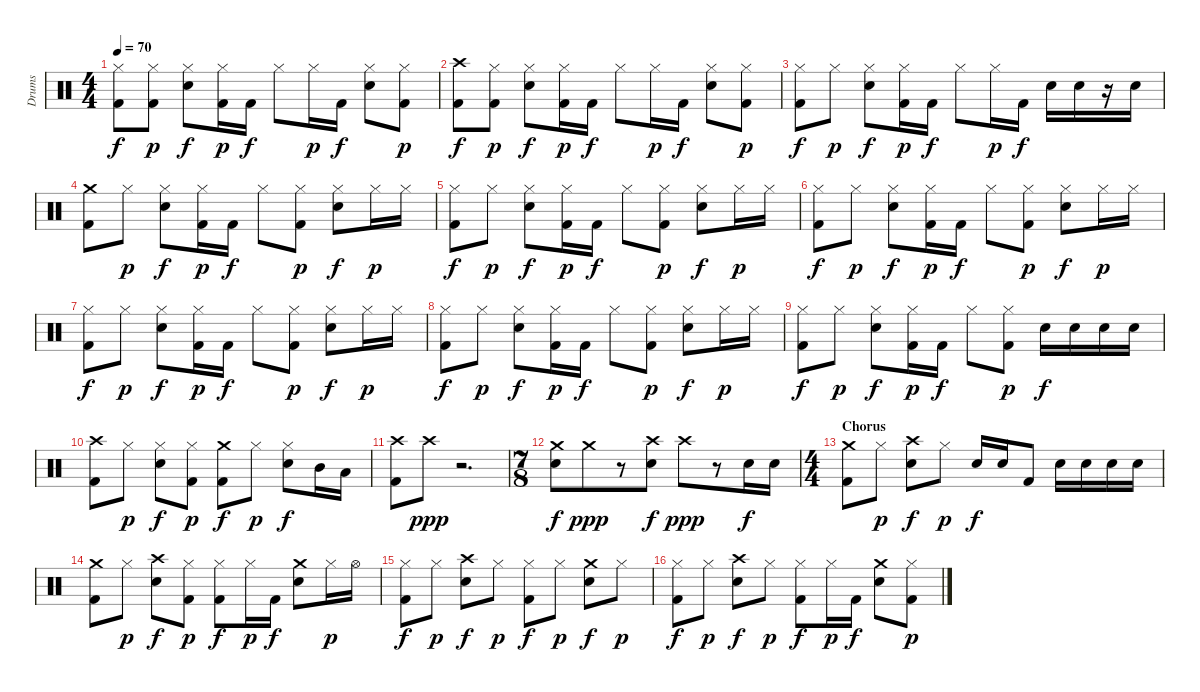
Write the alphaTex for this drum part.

\track ("Drums" "Drums") {instrument percussion}
\staff {score}
\articulation defaults
\ts (4 4)
\tempo 70
\clef neutral
\ks c
("Hi-Hat (closed)" "Kick (hit) 2").8{dy f} ("Hi-Hat (closed)" "Kick (hit) 2").8{dy p} ("Hi-Hat (closed)" "Snare (hit) 2").8{dy f} ("Hi-Hat (closed)" "Kick (hit) 2").16{dy p} "Kick (hit) 2".16{dy f} "Hi-Hat (closed)".8 "Hi-Hat (closed)".16{dy p} "Kick (hit) 2".16{dy f} ("Hi-Hat (closed)" "Snare (hit) 2").8 ("Hi-Hat (closed)" "Kick (hit) 2").8{dy p} |
("Crash high (hit)" "Kick (hit) 2").8{dy f} ("Hi-Hat (closed)" "Kick (hit) 2").8{dy p} ("Hi-Hat (closed)" "Snare (hit) 2").8{dy f} ("Hi-Hat (closed)" "Kick (hit) 2").16{dy p} "Kick (hit) 2".16{dy f} "Hi-Hat (closed)".8 "Hi-Hat (closed)".16{dy p} "Kick (hit) 2".16{dy f} ("Hi-Hat (closed)" "Snare (hit) 2").8 ("Hi-Hat (closed)" "Kick (hit) 2").8{dy p} |
("Hi-Hat (closed)" "Kick (hit) 2").8{dy f} "Hi-Hat (closed)".8{dy p} ("Hi-Hat (closed)" "Snare (hit) 2").8{dy f} ("Hi-Hat (closed)" "Kick (hit) 2").16{dy p} "Kick (hit) 2".16{dy f} "Hi-Hat (closed)".8 "Hi-Hat (closed)".16{dy p} "Kick (hit) 2".16{dy f} "Snare (hit) 2".16 "Snare (hit) 2".16 r.16 "Snare (hit) 2".16 |
("Crash medium (hit)" "Kick (hit) 2").8 "Hi-Hat (closed)".8{dy p} ("Hi-Hat (closed)" "Snare (hit) 2").8{dy f} ("Hi-Hat (closed)" "Kick (hit) 2").16{dy p} "Kick (hit) 2".16{dy f} "Hi-Hat (closed)".8 ("Hi-Hat (closed)" "Kick (hit) 2").8{dy p} ("Hi-Hat (closed)" "Snare (hit) 2").8{dy f} "Hi-Hat (closed)".16{dy p} "Hi-Hat (closed)".16 |
("Hi-Hat (closed)" "Kick (hit) 2").8{dy f} "Hi-Hat (closed)".8{dy p} ("Hi-Hat (closed)" "Snare (hit) 2").8{dy f} ("Hi-Hat (closed)" "Kick (hit) 2").16{dy p} "Kick (hit) 2".16{dy f} "Hi-Hat (closed)".8 ("Hi-Hat (closed)" "Kick (hit) 2").8{dy p} ("Hi-Hat (closed)" "Snare (hit) 2").8{dy f} "Hi-Hat (closed)".16{dy p} "Hi-Hat (closed)".16 |
("Hi-Hat (closed)" "Kick (hit) 2").8{dy f} "Hi-Hat (closed)".8{dy p} ("Hi-Hat (closed)" "Snare (hit) 2").8{dy f} ("Hi-Hat (closed)" "Kick (hit) 2").16{dy p} "Kick (hit) 2".16{dy f} "Hi-Hat (closed)".8 ("Hi-Hat (closed)" "Kick (hit) 2").8{dy p} ("Hi-Hat (closed)" "Snare (hit) 2").8{dy f} "Hi-Hat (closed)".16{dy p} "Hi-Hat (closed)".16 |
("Hi-Hat (closed)" "Kick (hit) 2").8{dy f} "Hi-Hat (closed)".8{dy p} ("Hi-Hat (closed)" "Snare (hit) 2").8{dy f} ("Hi-Hat (closed)" "Kick (hit) 2").16{dy p} "Kick (hit) 2".16{dy f} "Hi-Hat (closed)".8 ("Hi-Hat (closed)" "Kick (hit) 2").8{dy p} ("Hi-Hat (closed)" "Snare (hit) 2").8{dy f} "Hi-Hat (closed)".16{dy p} "Hi-Hat (closed)".16 |
("Hi-Hat (closed)" "Kick (hit) 2").8{dy f} "Hi-Hat (closed)".8{dy p} ("Hi-Hat (closed)" "Snare (hit) 2").8{dy f} ("Hi-Hat (closed)" "Kick (hit) 2").16{dy p} "Kick (hit) 2".16{dy f} "Hi-Hat (closed)".8 ("Hi-Hat (closed)" "Kick (hit) 2").8{dy p} ("Hi-Hat (closed)" "Snare (hit) 2").8{dy f} "Hi-Hat (closed)".16{dy p} "Hi-Hat (closed)".16 |
("Hi-Hat (closed)" "Kick (hit) 2").8{dy f} "Hi-Hat (closed)".8{dy p} ("Hi-Hat (closed)" "Snare (hit) 2").8{dy f} ("Hi-Hat (closed)" "Kick (hit) 2").16{dy p} "Kick (hit) 2".16{dy f} "Hi-Hat (closed)".8 ("Hi-Hat (closed)" "Kick (hit) 2").8{dy p} "Snare (hit) 2".16{dy f} "Snare (hit) 2".16 "Snare (hit) 2".16 "Snare (hit) 2".16 |
("Crash high (hit)" "Kick (hit) 2").8 "Hi-Hat (closed)".8{dy p} ("Hi-Hat (closed)" "Snare (hit) 2").8{dy f} ("Hi-Hat (closed)" "Kick (hit) 2").8{dy p} ("Crash medium (hit)" "Kick (hit) 2").8{dy f} "Hi-Hat (closed)".8{dy p} ("Hi-Hat (closed)" "Snare (hit) 2").8{dy f} "Mid Tom (hit)".16 "Low Tom (hit)".16 |
("Crash high (hit)" "Kick (hit) 2").8 "Crash high (hit)".8{dy ppp} r.2{d} |
\ts (7 8)
("Crash medium (hit)" "Snare (hit) 2").8{dy f} "Crash medium (hit)".8{dy ppp} r.8 ("Crash high (hit)" "Snare (hit) 2").8{dy f} "Crash high (hit)".8{dy ppp} r.8 "Snare (hit) 2".16{dy f} "Snare (hit) 2".16 |
\ts (4 4)
\section ("" "Chorus")
("Crash medium (hit)" "Kick (hit) 2").8 "Hi-Hat (closed)".8{dy p} ("Crash high (hit)" "Snare (hit) 2").8{dy f} "Hi-Hat (closed)".8{dy p} "Snare (hit) 2".16{dy f} "Snare (hit) 2".16 "Kick (hit) 2".8 "Snare (hit) 2".16 "Snare (hit) 2".16 "Snare (hit) 2".16 "Snare (hit) 2".16 |
("Crash medium (hit)" "Kick (hit) 2").8 "Hi-Hat (closed)".8{dy p} ("Crash high (hit)" "Snare (hit) 2").8{dy f} ("Hi-Hat (closed)" "Kick (hit) 2").8{dy p} ("Hi-Hat (closed)" "Kick (hit) 2").8{dy f} "Hi-Hat (closed)".16{dy p} "Kick (hit) 2".16{dy f} ("Crash medium (hit)" "Snare (hit) 2").8 "Hi-Hat (closed)".16{dy p} "Hi-Hat (open)".16 |
("Hi-Hat (closed)" "Kick (hit) 2").8{dy f} "Hi-Hat (closed)".8{dy p} ("Crash high (hit)" "Snare (hit) 2").8{dy f} "Hi-Hat (closed)".8{dy p} ("Hi-Hat (closed)" "Kick (hit) 2").8{dy f} "Hi-Hat (closed)".8{dy p} ("Crash medium (hit)" "Snare (hit) 2").8{dy f} "Hi-Hat (closed)".8{dy p} |
("Hi-Hat (closed)" "Kick (hit) 2").8{dy f} "Hi-Hat (closed)".8{dy p} ("Crash high (hit)" "Snare (hit) 2").8{dy f} "Hi-Hat (closed)".8{dy p} ("Hi-Hat (closed)" "Kick (hit) 2").8{dy f} "Hi-Hat (closed)".16{dy p} "Kick (hit) 2".16{dy f} ("Crash medium (hit)" "Snare (hit) 2").8 ("Hi-Hat (closed)" "Kick (hit) 2").8{dy p}
